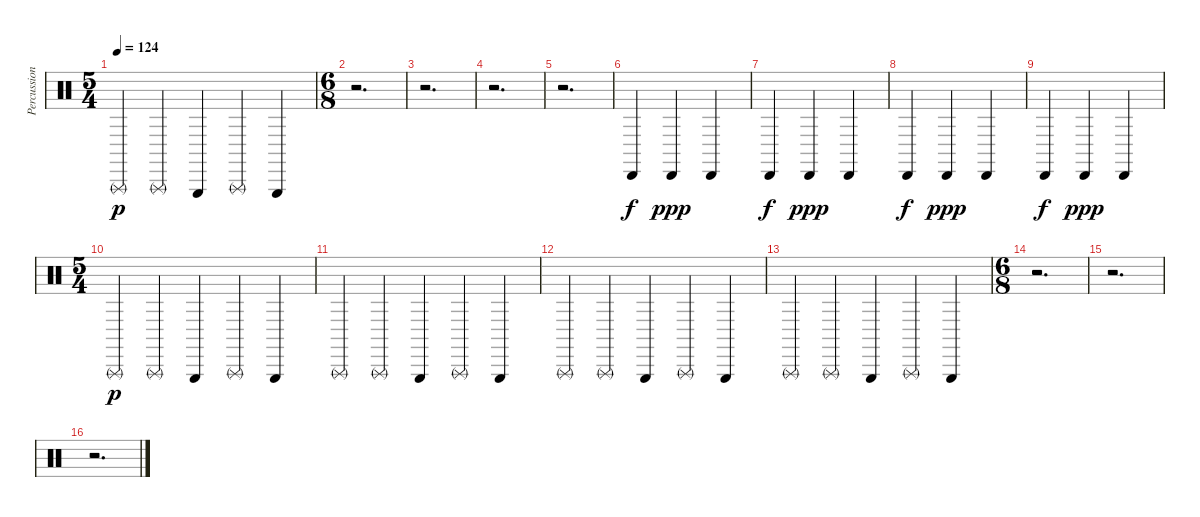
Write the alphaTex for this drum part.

\track ("Percussion" "Percussion") {instrument percussion}
\staff {score}
\articulation defaults
\ts (5 4)
\tempo 124
\clef neutral
\ks c "Triangle (rnute)".4{dy p} "Triangle (rnute)".4 "Triangle (hit)".4 "Triangle (rnute)".4 "Triangle (hit)".4
|
\ts (6 8)
\section ("" "")
r.2{d} |
r.2{d} |
r.2{d} |
r.2{d} |
"Cabasa (hit)".4{dy f} "Cabasa (hit)".4{dy ppp} "Cabasa (hit)".4 |
"Cabasa (hit)".4{dy f} "Cabasa (hit)".4{dy ppp} "Cabasa (hit)".4 |
"Cabasa (hit)".4{dy f} "Cabasa (hit)".4{dy ppp} "Cabasa (hit)".4 |
"Cabasa (hit)".4{dy f} "Cabasa (hit)".4{dy ppp} "Cabasa (hit)".4 |
\ts (5 4)
\section ("" "")
"Triangle (rnute)".4{dy p} "Triangle (rnute)".4 "Triangle (hit)".4 "Triangle (rnute)".4 "Triangle (hit)".4 |
"Triangle (rnute)".4 "Triangle (rnute)".4 "Triangle (hit)".4 "Triangle (rnute)".4 "Triangle (hit)".4 |
"Triangle (rnute)".4 "Triangle (rnute)".4 "Triangle (hit)".4 "Triangle (rnute)".4 "Triangle (hit)".4 |
"Triangle (rnute)".4 "Triangle (rnute)".4 "Triangle (hit)".4 "Triangle (rnute)".4 "Triangle (hit)".4 |
\ts (6 8)
\section ("" "")
r.2{d} |
r.2{d} |
r.2{d}
